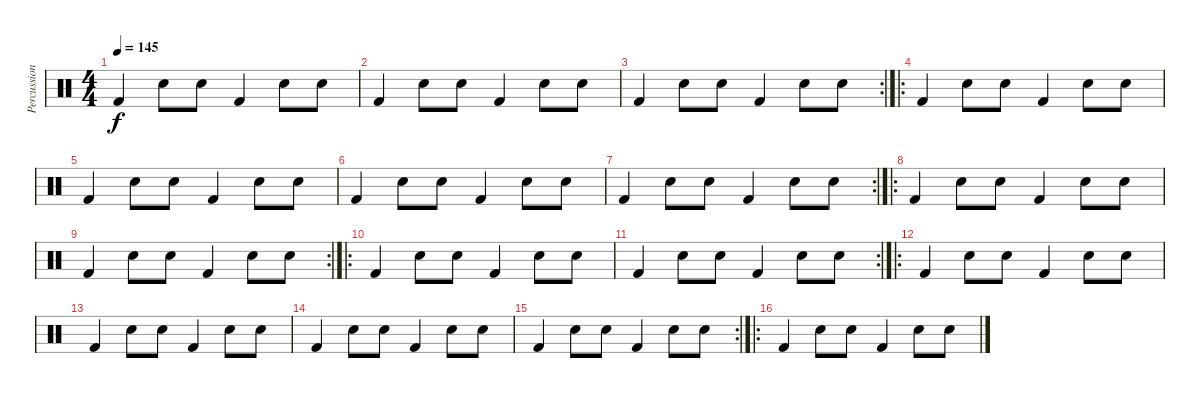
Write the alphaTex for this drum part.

\track ("Percussions" "Percussion") {instrument percussion}
\staff {score}
\articulation defaults
\ts (4 4)
\tempo 145
\clef neutral
\ks c "Kick (hit) 2".4{dy f} "Snare (hit) 2".8 "Snare (hit) 2".8 "Kick (hit) 2".4 "Snare (hit) 2".8 "Snare (hit) 2".8
|
"Kick (hit) 2".4 "Snare (hit) 2".8 "Snare (hit) 2".8 "Kick (hit) 2".4 "Snare (hit) 2".8 "Snare (hit) 2".8 |
\rc 2 "Kick (hit) 2".4 "Snare (hit) 2".8 "Snare (hit) 2".8 "Kick (hit) 2".4 "Snare (hit) 2".8 "Snare (hit) 2".8
|
\ro "Kick (hit) 2".4 "Snare (hit) 2".8 "Snare (hit) 2".8 "Kick (hit) 2".4 "Snare (hit) 2".8 "Snare (hit) 2".8
|
"Kick (hit) 2".4 "Snare (hit) 2".8 "Snare (hit) 2".8 "Kick (hit) 2".4 "Snare (hit) 2".8 "Snare (hit) 2".8 |
"Kick (hit) 2".4 "Snare (hit) 2".8 "Snare (hit) 2".8 "Kick (hit) 2".4 "Snare (hit) 2".8 "Snare (hit) 2".8 |
\rc 2 "Kick (hit) 2".4 "Snare (hit) 2".8 "Snare (hit) 2".8 "Kick (hit) 2".4 "Snare (hit) 2".8 "Snare (hit) 2".8
|
\ro "Kick (hit) 2".4 "Snare (hit) 2".8 "Snare (hit) 2".8 "Kick (hit) 2".4 "Snare (hit) 2".8 "Snare (hit) 2".8
|
\rc 2 "Kick (hit) 2".4 "Snare (hit) 2".8 "Snare (hit) 2".8 "Kick (hit) 2".4 "Snare (hit) 2".8 "Snare (hit) 2".8
|
\ro "Kick (hit) 2".4 "Snare (hit) 2".8 "Snare (hit) 2".8 "Kick (hit) 2".4 "Snare (hit) 2".8 "Snare (hit) 2".8
|
\rc 2 "Kick (hit) 2".4 "Snare (hit) 2".8 "Snare (hit) 2".8 "Kick (hit) 2".4 "Snare (hit) 2".8 "Snare (hit) 2".8
|
\ro "Kick (hit) 2".4 "Snare (hit) 2".8 "Snare (hit) 2".8 "Kick (hit) 2".4 "Snare (hit) 2".8 "Snare (hit) 2".8
|
"Kick (hit) 2".4 "Snare (hit) 2".8 "Snare (hit) 2".8 "Kick (hit) 2".4 "Snare (hit) 2".8 "Snare (hit) 2".8 |
"Kick (hit) 2".4 "Snare (hit) 2".8 "Snare (hit) 2".8 "Kick (hit) 2".4 "Snare (hit) 2".8 "Snare (hit) 2".8 |
\rc 2 "Kick (hit) 2".4 "Snare (hit) 2".8 "Snare (hit) 2".8 "Kick (hit) 2".4 "Snare (hit) 2".8 "Snare (hit) 2".8
|
\ro "Kick (hit) 2".4 "Snare (hit) 2".8 "Snare (hit) 2".8 "Kick (hit) 2".4 "Snare (hit) 2".8 "Snare (hit) 2".8
